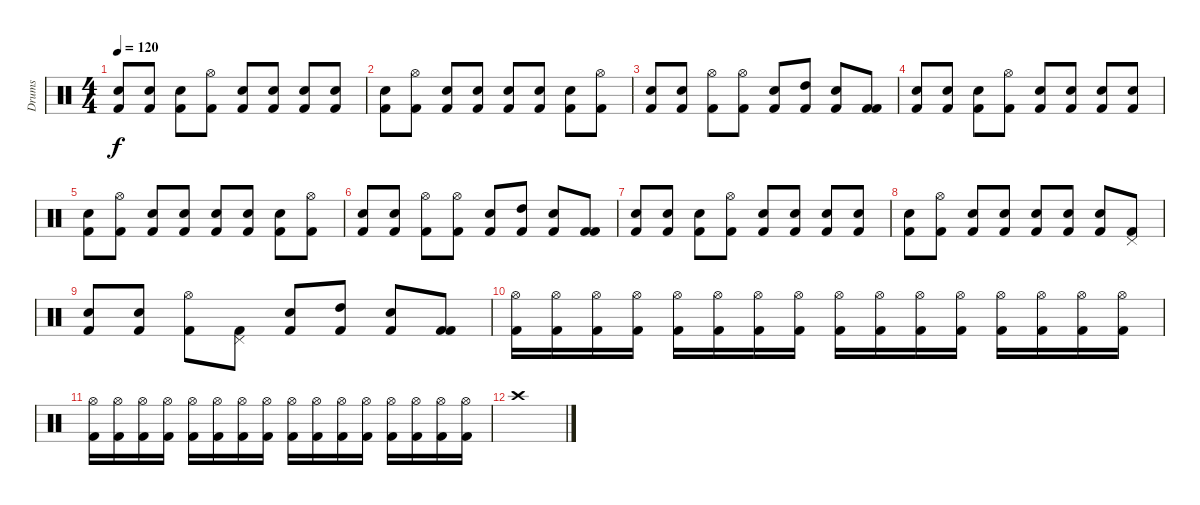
\track ("Drums" "Drums") {instrument percussion}
\staff {score}
\articulation defaults
\ts (4 4)
\tempo 120
\clef neutral
\ks c
("Electric Snare (hit)" "Kick (hit) 2").8{dy f} ("Electric Snare (hit)" "Kick (hit) 2").8 ("Electric Snare (hit)" "Kick (hit) 2").8 ("Hi-Hat (open)" "Kick (hit) 2").8 ("Electric Snare (hit)" "Kick (hit) 2").8 ("Electric Snare (hit)" "Kick (hit) 2").8 ("Electric Snare (hit)" "Kick (hit) 2").8 ("Electric Snare (hit)" "Kick (hit) 2").8 |
("Electric Snare (hit)" "Kick (hit) 2").8 ("Hi-Hat (open)" "Kick (hit) 2").8 ("Electric Snare (hit)" "Kick (hit) 2").8 ("Electric Snare (hit)" "Kick (hit) 2").8 ("Electric Snare (hit)" "Kick (hit) 2").8 ("Electric Snare (hit)" "Kick (hit) 2").8 ("Electric Snare (hit)" "Kick (hit) 2").8 ("Hi-Hat (open)" "Kick (hit) 2").8 |
("Electric Snare (hit)" "Kick (hit) 2").8 ("Electric Snare (hit)" "Kick (hit) 2").8 ("Hi-Hat (open)" "Kick (hit) 2").8 ("Hi-Hat (open)" "Kick (hit) 2").8 ("Electric Snare (hit)" "Kick (hit) 2").8 ("High Tom (hit)" "Kick (hit) 2").8 ("Electric Snare (hit)" "Kick (hit) 2").8 ("Kick (hit) 2" "Kick (hit) 2").8 |
("Electric Snare (hit)" "Kick (hit) 2").8 ("Electric Snare (hit)" "Kick (hit) 2").8 ("Electric Snare (hit)" "Kick (hit) 2").8 ("Hi-Hat (open)" "Kick (hit) 2").8 ("Electric Snare (hit)" "Kick (hit) 2").8 ("Electric Snare (hit)" "Kick (hit) 2").8 ("Electric Snare (hit)" "Kick (hit) 2").8 ("Electric Snare (hit)" "Kick (hit) 2").8 |
("Electric Snare (hit)" "Kick (hit) 2").8 ("Hi-Hat (open)" "Kick (hit) 2").8 ("Electric Snare (hit)" "Kick (hit) 2").8 ("Electric Snare (hit)" "Kick (hit) 2").8 ("Electric Snare (hit)" "Kick (hit) 2").8 ("Electric Snare (hit)" "Kick (hit) 2").8 ("Electric Snare (hit)" "Kick (hit) 2").8 ("Hi-Hat (open)" "Kick (hit) 2").8 |
("Electric Snare (hit)" "Kick (hit) 2").8 ("Electric Snare (hit)" "Kick (hit) 2").8 ("Hi-Hat (open)" "Kick (hit) 2").8 ("Hi-Hat (open)" "Kick (hit) 2").8 ("Electric Snare (hit)" "Kick (hit) 2").8 ("High Tom (hit)" "Kick (hit) 2").8 ("Electric Snare (hit)" "Kick (hit) 2").8 ("Kick (hit) 2" "Kick (hit) 2").8 |
("Electric Snare (hit)" "Kick (hit) 2").8 ("Electric Snare (hit)" "Kick (hit) 2").8 ("Electric Snare (hit)" "Kick (hit) 2").8 ("Hi-Hat (open)" "Kick (hit) 2").8 ("Electric Snare (hit)" "Kick (hit) 2").8 ("Electric Snare (hit)" "Kick (hit) 2").8 ("Electric Snare (hit)" "Kick (hit) 2").8 ("Electric Snare (hit)" "Kick (hit) 2").8 |
("Electric Snare (hit)" "Kick (hit) 2").8 ("Hi-Hat (open)" "Kick (hit) 2").8 ("Electric Snare (hit)" "Kick (hit) 2").8 ("Electric Snare (hit)" "Kick (hit) 2").8 ("Electric Snare (hit)" "Kick (hit) 2").8 ("Electric Snare (hit)" "Kick (hit) 2").8 ("Electric Snare (hit)" "Kick (hit) 2").8 ("Pedal Hi-Hat (hit)" "Kick (hit) 2").8 |
("Electric Snare (hit)" "Kick (hit) 2").8 ("Electric Snare (hit)" "Kick (hit) 2").8 ("Hi-Hat (open)" "Kick (hit) 2").8 ("Pedal Hi-Hat (hit)" "Kick (hit) 2").8 ("Electric Snare (hit)" "Kick (hit) 2").8 ("High Tom (hit)" "Kick (hit) 2").8 ("Electric Snare (hit)" "Kick (hit) 2").8 ("Kick (hit) 2" "Kick (hit) 2").8 |
("Hi-Hat (open)" "Kick (hit) 2").16 ("Hi-Hat (open)" "Kick (hit) 2").16 ("Hi-Hat (open)" "Kick (hit) 2").16 ("Hi-Hat (open)" "Kick (hit) 2").16 ("Hi-Hat (open)" "Kick (hit) 2").16 ("Hi-Hat (open)" "Kick (hit) 2").16 ("Hi-Hat (open)" "Kick (hit) 2").16 ("Hi-Hat (open)" "Kick (hit) 2").16 ("Hi-Hat (open)" "Kick (hit) 2").16 ("Hi-Hat (open)" "Kick (hit) 2").16 ("Hi-Hat (open)" "Kick (hit) 2").16 ("Hi-Hat (open)" "Kick (hit) 2").16 ("Hi-Hat (open)" "Kick (hit) 2").16 ("Hi-Hat (open)" "Kick (hit) 2").16 ("Hi-Hat (open)" "Kick (hit) 2").16 ("Hi-Hat (open)" "Kick (hit) 2").16 |
("Hi-Hat (open)" "Kick (hit) 2").16 ("Hi-Hat (open)" "Kick (hit) 2").16 ("Hi-Hat (open)" "Kick (hit) 2").16 ("Hi-Hat (open)" "Kick (hit) 2").16 ("Hi-Hat (open)" "Kick (hit) 2").16 ("Hi-Hat (open)" "Kick (hit) 2").16 ("Hi-Hat (open)" "Kick (hit) 2").16 ("Hi-Hat (open)" "Kick (hit) 2").16 ("Hi-Hat (open)" "Kick (hit) 2").16 ("Hi-Hat (open)" "Kick (hit) 2").16 ("Hi-Hat (open)" "Kick (hit) 2").16 ("Hi-Hat (open)" "Kick (hit) 2").16 ("Hi-Hat (open)" "Kick (hit) 2").16 ("Hi-Hat (open)" "Kick (hit) 2").16 ("Hi-Hat (open)" "Kick (hit) 2").16 ("Hi-Hat (open)" "Kick (hit) 2").16 |
"Crash high (hit)".1
